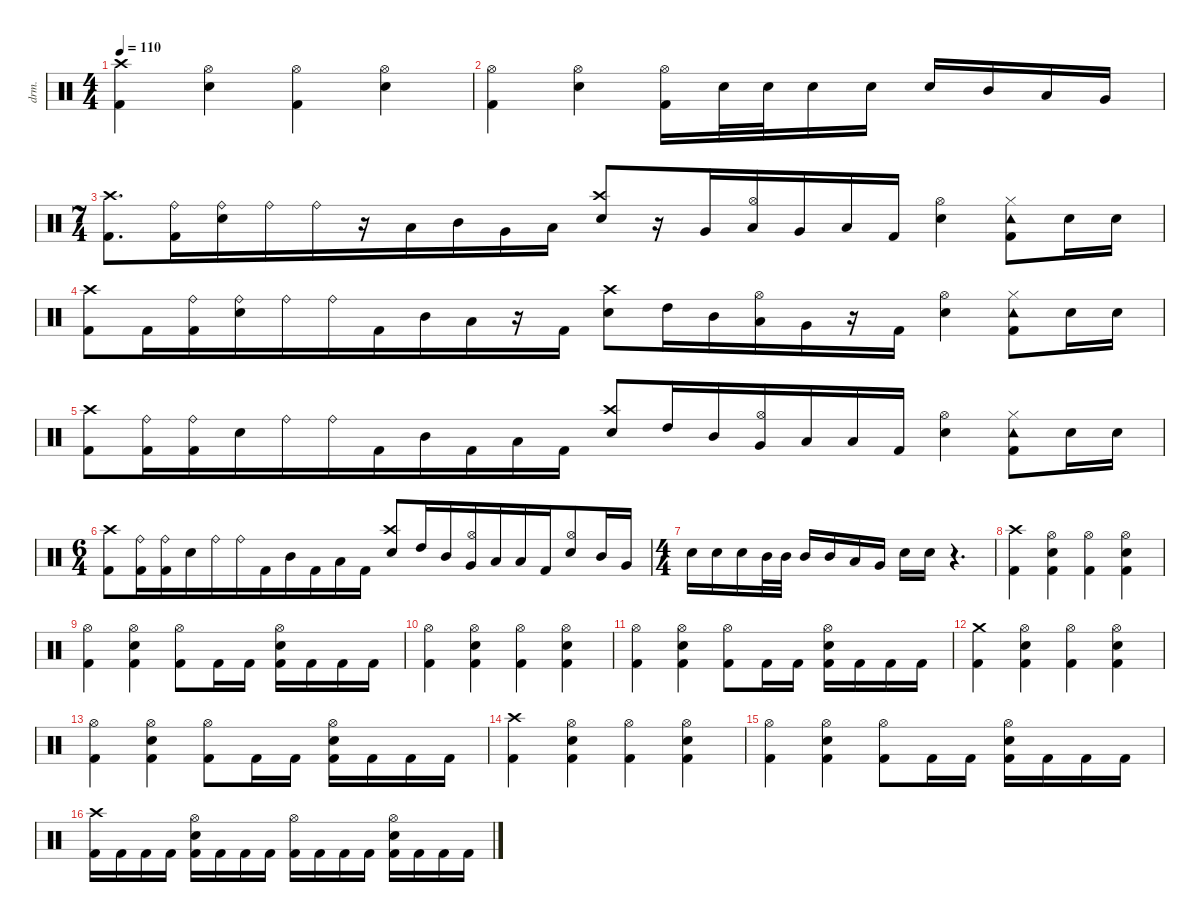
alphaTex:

\defaultSystemsLayout 4
\hideDynamics
\bracketExtendMode nobrackets
\otherSystemsTrackNameOrientation horizontal
\track ("Drums" "drm.") {instrument percussion}
\staff {score}
\articulation defaults
\ts (4 4)
\tempo 110
\clef neutral
\ks c
("Kick (hit) 2" "Crash high (hit)").4{dy f beam Down} ("Snare (hit) 2" "Hi-Hat (open)").4{beam Down} ("Kick (hit) 2" "Hi-Hat (open)").4{beam Down} ("Snare (hit) 2" "Hi-Hat (open)").4{beam Down} |
("Kick (hit) 2" "Hi-Hat (open)").4{beam Down} ("Snare (hit) 2" "Hi-Hat (open)").4{beam Down} ("Kick (hit) 2" "Hi-Hat (open)").16{beam Down} "Snare (hit) 2".32{beam Down} "Snare (hit) 2".32{beam Down} "Snare (hit) 2".16{beam Down} "Snare (hit) 2".16{beam Down} "Snare (hit) 2".16{beam Up} "Mid Tom (hit)".16{beam Up} "Low Tom (hit)".16{beam Up} "Very Low Tom (hit)".16{beam Up} |
\ts (7 4)
\beaming (8 6 4 4)
("Crash high (hit)" "Kick (hit) 2").8{d beam Down} ("Kick (hit) 2" "Ride (bell)").16{beam Down} ("Snare (hit) 2" "Ride (bell)").16{beam Down} "Ride (bell)".16{dy mf beam Down} "Ride (bell)".16{dy f beam Down} r.16{beam Down} "Low Tom (hit)".16{beam Down} "Mid Tom (hit)".16{beam Down} "Very Low Tom (hit)".16{beam Down} "Low Floor Tom (hit)".16{beam Down} ("Crash high (hit)" "Snare (hit) 2").8{beam Up} r.16{beam Up} "Very Low Tom (hit)".16{beam Up} ("Low Tom (hit)" "Hi-Hat (open)").16{beam Up} "Very Low Tom (hit)".16{beam Up} "Low Floor Tom (hit)".16{beam Up} "Kick (hit) 2".16{beam Up} ("Snare (hit) 2" "Hi-Hat (open)").4{beam Down} ("Tambourine (hit)" "Kick (hit) 2" "Hi-Hat (closed)").8{beam Down} "Snare (hit) 2".16{beam Down} "Snare (hit) 2".16{beam Down} |
("Crash high (hit)" "Kick (hit) 2").8{beam Down} "Kick (hit) 2".16{beam Down} ("Kick (hit) 2" "Ride (bell)").16{beam Down} ("Ride (bell)" "Snare (hit) 2").16{dy mp beam Down} "Ride (bell)".16{dy mf beam Down} "Ride (bell)".16{dy f beam Down} "Kick (hit) 2".16{beam Down} "Mid Tom (hit)".16{beam Down} "Low Tom (hit)".16{beam Down} r.16{beam Down} "Kick (hit) 2".16{beam Down} ("Crash high (hit)" "Snare (hit) 2").8{beam Down} "High Tom (hit)".16{beam Down} "Mid Tom (hit)".16{beam Down} ("Low Tom (hit)" "Hi-Hat (open)").16{beam Down} "Very Low Tom (hit)".16{beam Down} r.16{beam Down} "Kick (hit) 2".16{beam Down} ("Snare (hit) 2" "Hi-Hat (open)").4{beam Down} ("Tambourine (hit)" "Kick (hit) 2" "Hi-Hat (closed)").8{beam Down} "Snare (hit) 2".16{beam Down} "Snare (hit) 2".16{beam Down} |
("Kick (hit) 2" "Crash high (hit)").8{beam Down} ("Kick (hit) 2" "Ride (bell)").16{beam Down} ("Kick (hit) 2" "Ride (bell)").16{beam Down} "Snare (hit) 2".16{beam Down} "Ride (bell)".16{dy mf beam Down} "Ride (bell)".16{dy f beam Down} "Kick (hit) 2".16{beam Down} "Mid Tom (hit)".16{beam Down} "Kick (hit) 2".16{beam Down} "Low Tom (hit)".16{beam Down} "Kick (hit) 2".16{beam Down} ("Crash high (hit)" "Snare (hit) 2").8{beam Up} "High Tom (hit)".16{beam Up} "Mid Tom (hit)".16{beam Up} ("Hi-Hat (open)" "Very Low Tom (hit)").16{beam Up} "Low Floor Tom (hit)".16{beam Up} "Low Floor Tom (hit)".16{dy mf beam Up} "Kick (hit) 2".16{dy f beam Up} ("Snare (hit) 2" "Hi-Hat (open)").4{beam Down} ("Tambourine (hit)" "Kick (hit) 2" "Hi-Hat (closed)").8{beam Down} "Snare (hit) 2".16{beam Down} "Snare (hit) 2".16{beam Down} |
\ts (6 4)
\beaming (8 6 6)
("Crash high (hit)" "Kick (hit) 2").8{beam Down} ("Kick (hit) 2" "Ride (bell)").16{beam Down} ("Kick (hit) 2" "Ride (bell)").16{beam Down} "Snare (hit) 2".16{beam Down} "Ride (bell)".16{dy mf beam Down} "Ride (bell)".16{dy f beam Down} "Kick (hit) 2".16{beam Down} "Mid Tom (hit)".16{beam Down} "Kick (hit) 2".16{beam Down} "Low Tom (hit)".16{beam Down} "Kick (hit) 2".16{beam Down} ("Crash high (hit)" "Snare (hit) 2").8{beam Up} "High Tom (hit)".16{beam Up} "Mid Tom (hit)".16{beam Up} ("Hi-Hat (open)" "Very Low Tom (hit)").16{beam Up} "Low Floor Tom (hit)".16{beam Up} "Low Floor Tom (hit)".16{dy mf beam Up} "Kick (hit) 2".16{dy f beam Up} ("Snare (hit) 2" "Hi-Hat (open)").8{beam Up} "Mid Tom (hit)".16{beam Up} "Very Low Tom (hit)".16{beam Up} |
\ts (4 4)
\beaming (8 2 2 2 2)
"Snare (hit) 2".16{beam Down} "Snare (hit) 2".16{beam Down} "Snare (hit) 2".16{beam Down} "Mid Tom (hit)".32{beam Down} "Mid Tom (hit)".32{beam Down} "Mid Tom (hit)".16{beam Up} "Mid Tom (hit)".16{beam Up} "Low Tom (hit)".16{beam Up} "Very Low Tom (hit)".16{beam Up} "Snare (hit) 2".16{beam Down} "Snare (hit) 2".16{beam Down} r.4{d beam Down} |
("Kick (hit) 2" "Crash high (hit)").4{beam Down} ("Hi-Hat (open)" "Snare (hit) 2" "Kick (hit) 2").4{beam Down} ("Hi-Hat (open)" "Kick (hit) 2").4{beam Down} ("Hi-Hat (open)" "Snare (hit) 2" "Kick (hit) 2").4{beam Down} |
("Hi-Hat (open)" "Kick (hit) 2").4{beam Down} ("Hi-Hat (open)" "Snare (hit) 2" "Kick (hit) 2").4{beam Down} ("Hi-Hat (open)" "Kick (hit) 2").8{beam Down} "Kick (hit) 2".16{beam Down} "Kick (hit) 2".16{beam Down} ("Hi-Hat (open)" "Kick (hit) 2" "Snare (hit) 2").16{beam Down} "Kick (hit) 2".16{beam Down} "Kick (hit) 2".16{beam Down} "Kick (hit) 2".16{beam Down} |
("Kick (hit) 2" "Hi-Hat (open)").4{beam Down} ("Hi-Hat (open)" "Snare (hit) 2" "Kick (hit) 2").4{beam Down} ("Hi-Hat (open)" "Kick (hit) 2").4{beam Down} ("Hi-Hat (open)" "Snare (hit) 2" "Kick (hit) 2").4{beam Down} |
("Hi-Hat (open)" "Kick (hit) 2").4{beam Down} ("Hi-Hat (open)" "Snare (hit) 2" "Kick (hit) 2").4{beam Down} ("Hi-Hat (open)" "Kick (hit) 2").8{beam Down} "Kick (hit) 2".16{beam Down} "Kick (hit) 2".16{beam Down} ("Hi-Hat (open)" "Kick (hit) 2" "Snare (hit) 2").16{beam Down} "Kick (hit) 2".16{beam Down} "Kick (hit) 2".16{beam Down} "Kick (hit) 2".16{beam Down} |
("Kick (hit) 2" "Crash medium (hit)").4{beam Down} ("Hi-Hat (open)" "Snare (hit) 2" "Kick (hit) 2").4{beam Down} ("Hi-Hat (open)" "Kick (hit) 2").4{beam Down} ("Hi-Hat (open)" "Snare (hit) 2" "Kick (hit) 2").4{beam Down} |
("Hi-Hat (open)" "Kick (hit) 2").4{beam Down} ("Hi-Hat (open)" "Snare (hit) 2" "Kick (hit) 2").4{beam Down} ("Hi-Hat (open)" "Kick (hit) 2").8{beam Down} "Kick (hit) 2".16{beam Down} "Kick (hit) 2".16{beam Down} ("Hi-Hat (open)" "Kick (hit) 2" "Snare (hit) 2").16{beam Down} "Kick (hit) 2".16{beam Down} "Kick (hit) 2".16{beam Down} "Kick (hit) 2".16{beam Down} |
("Kick (hit) 2" "Crash high (hit)").4{beam Down} ("Hi-Hat (open)" "Snare (hit) 2" "Kick (hit) 2").4{beam Down} ("Hi-Hat (open)" "Kick (hit) 2").4{beam Down} ("Hi-Hat (open)" "Snare (hit) 2" "Kick (hit) 2").4{beam Down} |
("Hi-Hat (open)" "Kick (hit) 2").4{beam Down} ("Hi-Hat (open)" "Snare (hit) 2" "Kick (hit) 2").4{beam Down} ("Hi-Hat (open)" "Kick (hit) 2").8{beam Down} "Kick (hit) 2".16{beam Down} "Kick (hit) 2".16{beam Down} ("Hi-Hat (open)" "Kick (hit) 2" "Snare (hit) 2").16{beam Down} "Kick (hit) 2".16{beam Down} "Kick (hit) 2".16{beam Down} "Kick (hit) 2".16{beam Down} |
("Kick (hit) 2" "Crash high (hit)").16{beam Down} "Kick (hit) 2".16{beam Down} "Kick (hit) 2".16{beam Down} "Kick (hit) 2".16{beam Down} ("Kick (hit) 2" "Snare (hit) 2" "Hi-Hat (open)").16{beam Down} "Kick (hit) 2".16{beam Down} "Kick (hit) 2".16{beam Down} "Kick (hit) 2".16{beam Down} ("Kick (hit) 2" "Hi-Hat (open)").16{beam Down} "Kick (hit) 2".16{beam Down} "Kick (hit) 2".16{beam Down} "Kick (hit) 2".16{beam Down} ("Kick (hit) 2" "Snare (hit) 2" "Hi-Hat (open)").16{beam Down} "Kick (hit) 2".16{beam Down} "Kick (hit) 2".16{beam Down} "Kick (hit) 2".16{beam Down}
